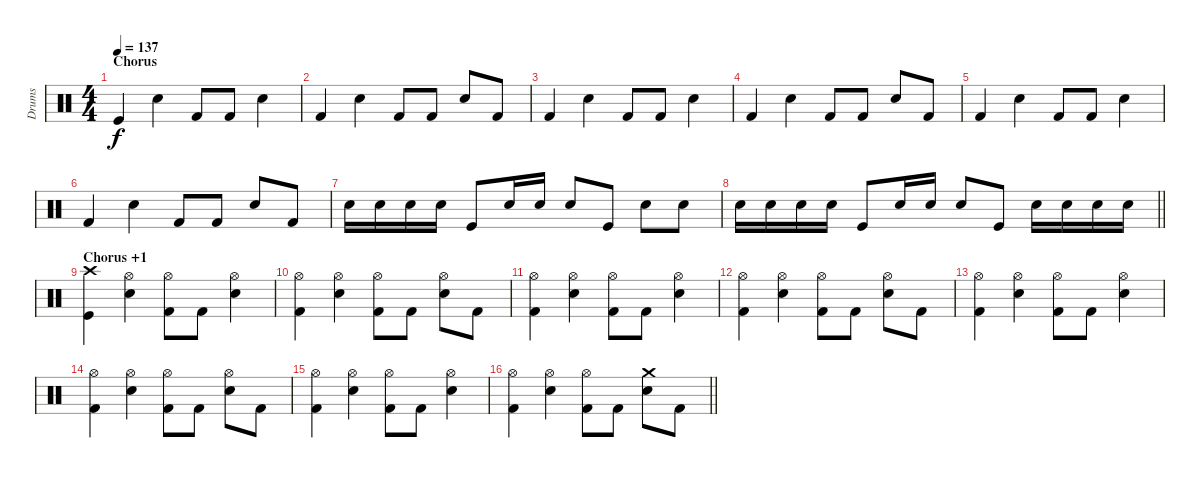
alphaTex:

\track ("Drums" "Drums") {instrument percussion}
\staff {score}
\articulation defaults
\ts (4 4)
\section ("" "Chorus ")
\tempo 137
\clef neutral
\ks c "Kick (hit)".4{dy f} "Electric Snare (hit)".4 "Kick (hit) 2".8 "Kick (hit) 2".8 "Electric Snare (hit)".4
|
"Kick (hit) 2".4 "Electric Snare (hit)".4 "Kick (hit) 2".8 "Kick (hit) 2".8 "Electric Snare (hit)".8 "Kick (hit) 2".8 |
"Kick (hit) 2".4 "Electric Snare (hit)".4 "Kick (hit) 2".8 "Kick (hit) 2".8 "Electric Snare (hit)".4 |
"Kick (hit) 2".4 "Electric Snare (hit)".4 "Kick (hit) 2".8 "Kick (hit) 2".8 "Electric Snare (hit)".8 "Kick (hit) 2".8 |
"Kick (hit) 2".4 "Electric Snare (hit)".4 "Kick (hit) 2".8 "Kick (hit) 2".8 "Electric Snare (hit)".4 |
"Kick (hit) 2".4 "Electric Snare (hit)".4 "Kick (hit) 2".8 "Kick (hit) 2".8 "Electric Snare (hit)".8 "Kick (hit) 2".8 |
"Electric Snare (hit)".16 "Electric Snare (hit)".16 "Electric Snare (hit)".16 "Electric Snare (hit)".16 "Kick (hit)".8 "Electric Snare (hit)".16 "Electric Snare (hit)".16 "Electric Snare (hit)".8 "Kick (hit)".8 "Electric Snare (hit)".8 "Electric Snare (hit)".8 |
\barLineRight lightlight "Electric Snare (hit)".16 "Electric Snare (hit)".16 "Electric Snare (hit)".16 "Electric Snare (hit)".16 "Kick (hit)".8 "Electric Snare (hit)".16 "Electric Snare (hit)".16 "Electric Snare (hit)".8 "Kick (hit)".8 "Electric Snare (hit)".16 "Electric Snare (hit)".16 "Electric Snare (hit)".16 "Electric Snare (hit)".16
|
\section ("" "Chorus +1")
("Crash high (hit)" "Kick (hit)").4 ("Hi-Hat (open)" "Electric Snare (hit)").4 ("Hi-Hat (open)" "Kick (hit) 2").8 "Kick (hit) 2".8 ("Hi-Hat (open)" "Electric Snare (hit)").4 |
("Hi-Hat (open)" "Kick (hit) 2").4 ("Hi-Hat (open)" "Electric Snare (hit)").4 ("Hi-Hat (open)" "Kick (hit) 2").8 "Kick (hit) 2".8 ("Hi-Hat (open)" "Electric Snare (hit)").8 "Kick (hit) 2".8 |
("Hi-Hat (open)" "Kick (hit) 2").4 ("Hi-Hat (open)" "Electric Snare (hit)").4 ("Hi-Hat (open)" "Kick (hit) 2").8 "Kick (hit) 2".8 ("Hi-Hat (open)" "Electric Snare (hit)").4 |
("Hi-Hat (open)" "Kick (hit) 2").4 ("Hi-Hat (open)" "Electric Snare (hit)").4 ("Hi-Hat (open)" "Kick (hit) 2").8 "Kick (hit) 2".8 ("Hi-Hat (open)" "Electric Snare (hit)").8 "Kick (hit) 2".8 |
("Hi-Hat (open)" "Kick (hit) 2").4 ("Hi-Hat (open)" "Electric Snare (hit)").4 ("Hi-Hat (open)" "Kick (hit) 2").8 "Kick (hit) 2".8 ("Hi-Hat (open)" "Electric Snare (hit)").4 |
("Hi-Hat (open)" "Kick (hit) 2").4 ("Hi-Hat (open)" "Electric Snare (hit)").4 ("Hi-Hat (open)" "Kick (hit) 2").8 "Kick (hit) 2".8 ("Hi-Hat (open)" "Electric Snare (hit)").8 "Kick (hit) 2".8 |
("Hi-Hat (open)" "Kick (hit) 2").4 ("Hi-Hat (open)" "Electric Snare (hit)").4 ("Hi-Hat (open)" "Kick (hit) 2").8 "Kick (hit) 2".8 ("Hi-Hat (open)" "Electric Snare (hit)").4 |
\barLineRight lightlight
("Hi-Hat (open)" "Kick (hit) 2").4 ("Hi-Hat (open)" "Electric Snare (hit)").4 ("Hi-Hat (open)" "Kick (hit) 2").8 "Kick (hit) 2".8 ("Crash medium (hit)" "Electric Snare (hit)").8 "Kick (hit) 2".8
